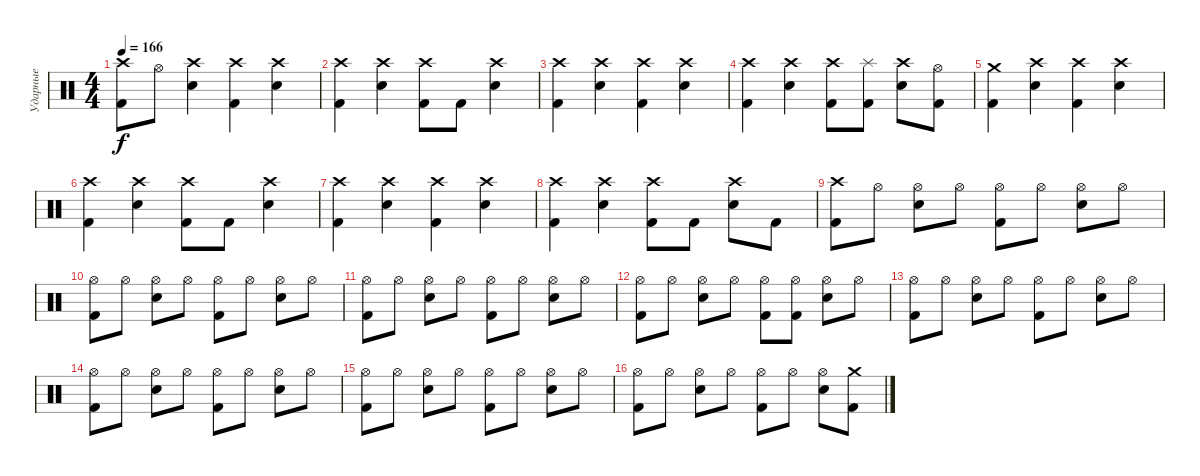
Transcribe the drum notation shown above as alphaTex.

\track ("Ударные" "Ударные") {instrument percussion}
\staff {score}
\articulation defaults
\ts (4 4)
\tempo 166
\clef neutral
\ks c
("Crash high (hit)" "Kick (hit) 2").8{dy f} "Hi-Hat (open)".8 ("Crash high (hit)" "Electric Snare (hit)").4 ("Crash high (hit)" "Kick (hit) 2").4 ("Crash high (hit)" "Electric Snare (hit)").4 |
("Crash high (hit)" "Kick (hit) 2").4 ("Crash high (hit)" "Electric Snare (hit)").4 ("Crash high (hit)" "Kick (hit) 2").8 "Kick (hit) 2".8 ("Crash high (hit)" "Electric Snare (hit)").4 |
("Crash high (hit)" "Kick (hit) 2").4 ("Crash high (hit)" "Electric Snare (hit)").4 ("Crash high (hit)" "Kick (hit) 2").4 ("Crash high (hit)" "Electric Snare (hit)").4 |
("Crash high (hit)" "Kick (hit) 2").4 ("Crash high (hit)" "Electric Snare (hit)").4 ("Crash high (hit)" "Kick (hit) 2").8 ("Splash (hit)" "Kick (hit) 2").8 ("Crash high (hit)" "Electric Snare (hit)").8 ("Hi-Hat (open)" "Kick (hit) 2").8 |
("Crash medium (hit)" "Kick (hit) 2").4 ("Crash high (hit)" "Electric Snare (hit)").4 ("Crash high (hit)" "Kick (hit) 2").4 ("Crash high (hit)" "Electric Snare (hit)").4 |
("Crash high (hit)" "Kick (hit) 2").4 ("Crash high (hit)" "Electric Snare (hit)").4 ("Crash high (hit)" "Kick (hit) 2").8 "Kick (hit) 2".8 ("Crash high (hit)" "Electric Snare (hit)").4 |
("Crash high (hit)" "Kick (hit) 2").4 ("Crash high (hit)" "Electric Snare (hit)").4 ("Crash high (hit)" "Kick (hit) 2").4 ("Crash high (hit)" "Electric Snare (hit)").4 |
("Crash high (hit)" "Kick (hit) 2").4 ("Crash high (hit)" "Electric Snare (hit)").4 ("Crash high (hit)" "Kick (hit) 2").8 "Kick (hit) 2".8 ("Crash high (hit)" "Electric Snare (hit)").8 "Kick (hit) 2".8 |
("Crash high (hit)" "Kick (hit) 2").8 "Hi-Hat (open)".8 ("Hi-Hat (open)" "Electric Snare (hit)").8 "Hi-Hat (open)".8 ("Hi-Hat (open)" "Kick (hit) 2").8 "Hi-Hat (open)".8 ("Hi-Hat (open)" "Electric Snare (hit)").8 "Hi-Hat (open)".8 |
("Hi-Hat (open)" "Kick (hit) 2").8 "Hi-Hat (open)".8 ("Hi-Hat (open)" "Electric Snare (hit)").8 "Hi-Hat (open)".8 ("Hi-Hat (open)" "Kick (hit) 2").8 "Hi-Hat (open)".8 ("Hi-Hat (open)" "Electric Snare (hit)").8 "Hi-Hat (open)".8 |
("Hi-Hat (open)" "Kick (hit) 2").8 "Hi-Hat (open)".8 ("Hi-Hat (open)" "Electric Snare (hit)").8 "Hi-Hat (open)".8 ("Hi-Hat (open)" "Kick (hit) 2").8 "Hi-Hat (open)".8 ("Hi-Hat (open)" "Electric Snare (hit)").8 "Hi-Hat (open)".8 |
("Hi-Hat (open)" "Kick (hit) 2").8 "Hi-Hat (open)".8 ("Hi-Hat (open)" "Electric Snare (hit)").8 "Hi-Hat (open)".8 ("Hi-Hat (open)" "Kick (hit) 2").8 ("Hi-Hat (open)" "Kick (hit) 2").8 ("Hi-Hat (open)" "Electric Snare (hit)").8 "Hi-Hat (open)".8 |
("Hi-Hat (open)" "Kick (hit) 2").8 "Hi-Hat (open)".8 ("Hi-Hat (open)" "Electric Snare (hit)").8 "Hi-Hat (open)".8 ("Hi-Hat (open)" "Kick (hit) 2").8 "Hi-Hat (open)".8 ("Hi-Hat (open)" "Electric Snare (hit)").8 "Hi-Hat (open)".8 |
("Hi-Hat (open)" "Kick (hit) 2").8 "Hi-Hat (open)".8 ("Hi-Hat (open)" "Electric Snare (hit)").8 "Hi-Hat (open)".8 ("Hi-Hat (open)" "Kick (hit) 2").8 "Hi-Hat (open)".8 ("Hi-Hat (open)" "Electric Snare (hit)").8 "Hi-Hat (open)".8 |
("Hi-Hat (open)" "Kick (hit) 2").8 "Hi-Hat (open)".8 ("Hi-Hat (open)" "Electric Snare (hit)").8 "Hi-Hat (open)".8 ("Hi-Hat (open)" "Kick (hit) 2").8 "Hi-Hat (open)".8 ("Hi-Hat (open)" "Electric Snare (hit)").8 "Hi-Hat (open)".8 |
("Hi-Hat (open)" "Kick (hit) 2").8 "Hi-Hat (open)".8 ("Hi-Hat (open)" "Electric Snare (hit)").8 "Hi-Hat (open)".8 ("Hi-Hat (open)" "Kick (hit) 2").8 "Hi-Hat (open)".8 ("Hi-Hat (open)" "Electric Snare (hit)").8 ("Crash medium (hit)" "Kick (hit) 2").8
